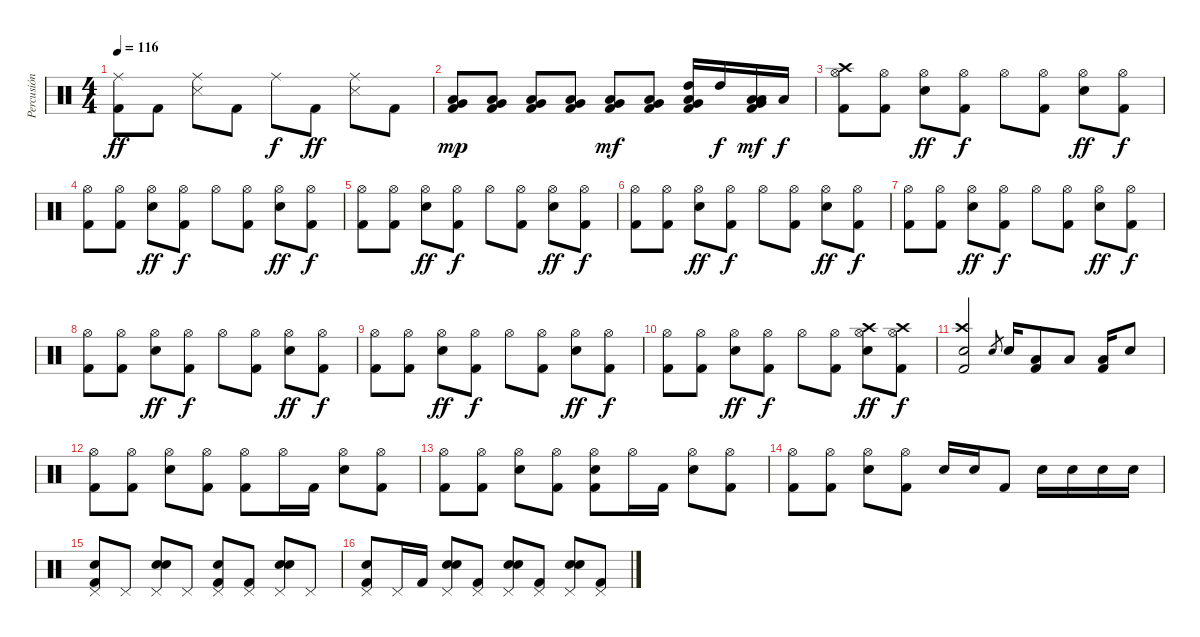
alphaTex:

\track ("Percusión" "Percusión") {instrument percussion}
\staff {score}
\articulation defaults
\ts (4 4)
\tempo 116
\clef neutral
\ks c
("Ride (middle)" "Kick (hit) 2").8{dy ff} "Kick (hit) 2".8 ("Ride (middle)" "Snare (side stick) 3").8 "Kick (hit) 2".8 "Ride (middle)".8{dy f} "Kick (hit) 2".8{dy ff} ("Ride (middle)" "Snare (side stick) 3").8 "Kick (hit) 2".8 |
("Very Low Tom (hit)" "Low Tom (hit)" "Kick (hit) 2").8{dy mp} ("Very Low Tom (hit)" "Low Tom (hit)" "Kick (hit) 2").8 ("Very Low Tom (hit)" "Low Tom (hit)" "Kick (hit) 2").8 ("Very Low Tom (hit)" "Low Tom (hit)" "Kick (hit) 2").8 ("Very Low Tom (hit)" "Low Tom (hit)" "Kick (hit) 2").8{dy mf} ("Very Low Tom (hit)" "Low Tom (hit)" "Kick (hit) 2").8 ("Very Low Tom (hit)" "Low Tom (hit)" "High Tom (hit)" "Kick (hit) 2").16 "High Tom (hit)".16{dy f} ("Very Low Tom (hit)" "Low Tom (hit)" "Low Tom (hit)" "Kick (hit) 2").16{dy mf} "Low Tom (hit)".16{dy f} |
("Crash high (hit)" "Hi-Hat (open)" "Kick (hit) 2").8 ("Hi-Hat (open)" "Kick (hit) 2").8 ("Hi-Hat (open)" "Snare (hit) 2").8{dy ff} ("Hi-Hat (open)" "Kick (hit) 2").8{dy f} "Hi-Hat (open)".8 ("Hi-Hat (open)" "Kick (hit) 2").8 ("Hi-Hat (open)" "Snare (hit) 2").8{dy ff} ("Hi-Hat (open)" "Kick (hit) 2").8{dy f} |
("Hi-Hat (open)" "Kick (hit) 2").8 ("Hi-Hat (open)" "Kick (hit) 2").8 ("Hi-Hat (open)" "Snare (hit) 2").8{dy ff} ("Hi-Hat (open)" "Kick (hit) 2").8{dy f} "Hi-Hat (open)".8 ("Hi-Hat (open)" "Kick (hit) 2").8 ("Hi-Hat (open)" "Snare (hit) 2").8{dy ff} ("Hi-Hat (open)" "Kick (hit) 2").8{dy f} |
("Hi-Hat (open)" "Kick (hit) 2").8 ("Hi-Hat (open)" "Kick (hit) 2").8 ("Hi-Hat (open)" "Snare (hit) 2").8{dy ff} ("Hi-Hat (open)" "Kick (hit) 2").8{dy f} "Hi-Hat (open)".8 ("Hi-Hat (open)" "Kick (hit) 2").8 ("Hi-Hat (open)" "Snare (hit) 2").8{dy ff} ("Hi-Hat (open)" "Kick (hit) 2").8{dy f} |
("Hi-Hat (open)" "Kick (hit) 2").8 ("Hi-Hat (open)" "Kick (hit) 2").8 ("Hi-Hat (open)" "Snare (hit) 2").8{dy ff} ("Hi-Hat (open)" "Kick (hit) 2").8{dy f} "Hi-Hat (open)".8 ("Hi-Hat (open)" "Kick (hit) 2").8 ("Hi-Hat (open)" "Snare (hit) 2").8{dy ff} ("Hi-Hat (open)" "Kick (hit) 2").8{dy f} |
("Hi-Hat (open)" "Kick (hit) 2").8 ("Hi-Hat (open)" "Kick (hit) 2").8 ("Hi-Hat (open)" "Snare (hit) 2").8{dy ff} ("Hi-Hat (open)" "Kick (hit) 2").8{dy f} "Hi-Hat (open)".8 ("Hi-Hat (open)" "Kick (hit) 2").8 ("Hi-Hat (open)" "Snare (hit) 2").8{dy ff} ("Hi-Hat (open)" "Kick (hit) 2").8{dy f} |
("Hi-Hat (open)" "Kick (hit) 2").8 ("Hi-Hat (open)" "Kick (hit) 2").8 ("Hi-Hat (open)" "Snare (hit) 2").8{dy ff} ("Hi-Hat (open)" "Kick (hit) 2").8{dy f} "Hi-Hat (open)".8 ("Hi-Hat (open)" "Kick (hit) 2").8 ("Hi-Hat (open)" "Snare (hit) 2").8{dy ff} ("Hi-Hat (open)" "Kick (hit) 2").8{dy f} |
("Hi-Hat (open)" "Kick (hit) 2").8 ("Hi-Hat (open)" "Kick (hit) 2").8 ("Hi-Hat (open)" "Snare (hit) 2").8{dy ff} ("Hi-Hat (open)" "Kick (hit) 2").8{dy f} "Hi-Hat (open)".8 ("Hi-Hat (open)" "Kick (hit) 2").8 ("Hi-Hat (open)" "Snare (hit) 2").8{dy ff} ("Hi-Hat (open)" "Kick (hit) 2").8{dy f} |
("Hi-Hat (open)" "Kick (hit) 2").8 ("Hi-Hat (open)" "Kick (hit) 2").8 ("Hi-Hat (open)" "Snare (hit) 2").8{dy ff} ("Hi-Hat (open)" "Kick (hit) 2").8{dy f} "Hi-Hat (open)".8 ("Hi-Hat (open)" "Kick (hit) 2").8 ("Crash high (hit)" "Hi-Hat (open)" "Snare (hit) 2").8{dy ff} ("Crash high (hit)" "Hi-Hat (open)" "Kick (hit) 2").8{dy f} |
("Crash high (hit)" "Snare (hit) 2" "Kick (hit) 2").2 "Snare (hit) 2".8{gr} "Snare (hit) 2".16 ("Low Tom (hit)" "Kick (hit) 2").8 "Low Tom (hit)".8 ("Low Tom (hit)" "Kick (hit) 2").16 "Snare (hit) 2".8 |
("Hi-Hat (open)" "Kick (hit) 2").8 ("Hi-Hat (open)" "Kick (hit) 2").8 ("Hi-Hat (open)" "Snare (hit) 2").8 ("Hi-Hat (open)" "Kick (hit) 2").8 ("Hi-Hat (open)" "Kick (hit) 2").8 "Hi-Hat (open)".16 "Kick (hit) 2".16 ("Hi-Hat (open)" "Snare (hit) 2").8 ("Hi-Hat (open)" "Kick (hit) 2").8 |
("Hi-Hat (open)" "Kick (hit) 2").8 ("Hi-Hat (open)" "Kick (hit) 2").8 ("Hi-Hat (open)" "Snare (hit) 2").8 ("Hi-Hat (open)" "Kick (hit) 2").8 ("Hi-Hat (open)" "Snare (hit) 2" "Kick (hit) 2").8 "Hi-Hat (open)".16 "Kick (hit) 2".16 ("Hi-Hat (open)" "Snare (hit) 2").8 ("Hi-Hat (open)" "Kick (hit) 2").8 |
("Hi-Hat (open)" "Kick (hit) 2").8 ("Hi-Hat (open)" "Kick (hit) 2").8 ("Hi-Hat (open)" "Snare (hit) 2").8 ("Hi-Hat (open)" "Kick (hit) 2").8 "Snare (hit) 2".16 "Snare (hit) 2".16 "Kick (hit) 2".8 "Snare (hit) 2".16 "Snare (hit) 2".16 "Snare (hit) 2".16 "Snare (hit) 2".16 |
("Hand Clap (hit)" "Pedal Hi-Hat (hit)" "Kick (hit) 2").8 "Pedal Hi-Hat (hit)".8 ("Hand Clap (hit)" "Pedal Hi-Hat (hit)" "Snare (hit) 2").8 "Pedal Hi-Hat (hit)".8 ("Hand Clap (hit)" "Pedal Hi-Hat (hit)" "Kick (hit) 2").8 ("Pedal Hi-Hat (hit)" "Kick (hit) 2").8 ("Hand Clap (hit)" "Pedal Hi-Hat (hit)" "Snare (hit) 2").8 "Pedal Hi-Hat (hit)".8 |
("Hand Clap (hit)" "Pedal Hi-Hat (hit)" "Kick (hit) 2").8 "Pedal Hi-Hat (hit)".16 "Kick (hit) 2".16 ("Hand Clap (hit)" "Pedal Hi-Hat (hit)" "Snare (hit) 2").8 ("Pedal Hi-Hat (hit)" "Kick (hit) 2").8 ("Hand Clap (hit)" "Pedal Hi-Hat (hit)" "Snare (hit) 2").8 ("Pedal Hi-Hat (hit)" "Kick (hit) 2").8 ("Hand Clap (hit)" "Pedal Hi-Hat (hit)" "Snare (hit) 2").8 ("Pedal Hi-Hat (hit)" "Kick (hit) 2").8
